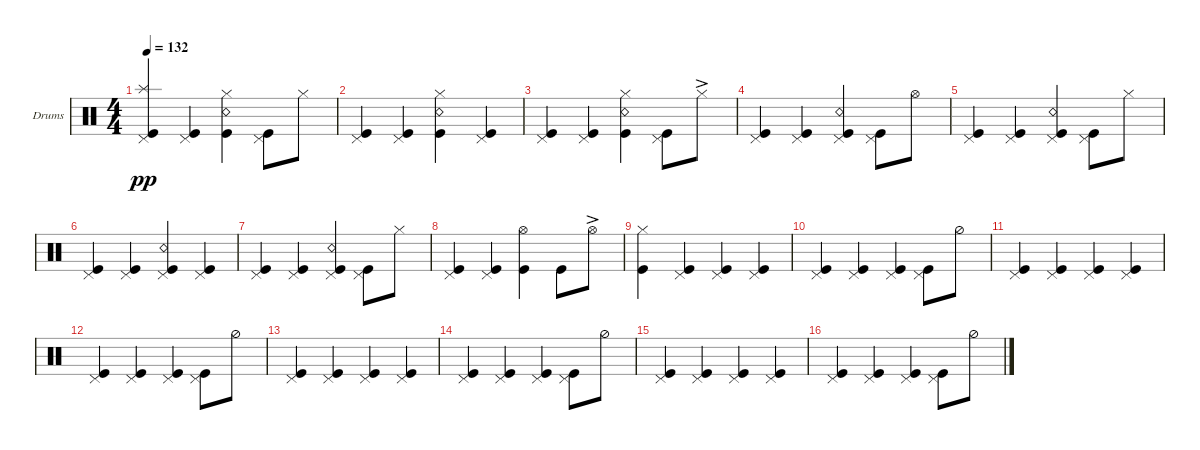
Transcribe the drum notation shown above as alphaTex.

\defaultSystemsLayout 4
\bracketExtendMode groupsimilarinstruments
\firstSystemTrackNameOrientation horizontal
\otherSystemsTrackNameOrientation horizontal
\track ("Steve Judd" "Drums") {instrument percussion}
\staff {score}
\articulation defaults
\ts (4 4)
\tempo 132
\clef neutral
\scale
0.474178
\ks c
("Kick (hit)" "Splash (hit)" "Pedal Hi-Hat (hit)").4{dy pp} ("Kick (hit)" "Pedal Hi-Hat (hit)").4 ("Kick (hit)" "Snare (rim shot)" "Hi-Hat (closed)").4 ("Kick (hit)" "Pedal Hi-Hat (hit)").8 "Hi-Hat (closed)".8 |
\scale
0.262911 ("Kick (hit)" "Pedal Hi-Hat (hit)").4 ("Kick (hit)" "Pedal Hi-Hat (hit)").4 ("Kick (hit)" "Snare (rim shot)" "Hi-Hat (closed)").4 ("Kick (hit)" "Pedal Hi-Hat (hit)").4 |
\scale
0.262911 ("Kick (hit)" "Pedal Hi-Hat (hit)").4 ("Kick (hit)" "Pedal Hi-Hat (hit)").4 ("Kick (hit)" "Snare (rim shot)" "Hi-Hat (closed)").4 ("Kick (hit)" "Pedal Hi-Hat (hit)").8 "Hi-Hat (closed)"{ac}.8 |
\scale
0.333333 ("Kick (hit)" "Pedal Hi-Hat (hit)").4 ("Kick (hit)" "Pedal Hi-Hat (hit)").4 ("Kick (hit)" "Snare (rim shot)" "Pedal Hi-Hat (hit)").4 ("Pedal Hi-Hat (hit)" "Kick (hit)").8 "Hi-Hat (open)".8 |
\scale
0.333333 ("Kick (hit)" "Pedal Hi-Hat (hit)").4 ("Kick (hit)" "Pedal Hi-Hat (hit)").4 ("Kick (hit)" "Snare (rim shot)" "Pedal Hi-Hat (hit)").4 ("Kick (hit)" "Pedal Hi-Hat (hit)").8 "Hi-Hat (closed)".8 |
\scale
0.333333 ("Kick (hit)" "Pedal Hi-Hat (hit)").4 ("Kick (hit)" "Pedal Hi-Hat (hit)").4 ("Kick (hit)" "Snare (rim shot)" "Pedal Hi-Hat (hit)").4 ("Kick (hit)" "Pedal Hi-Hat (hit)").4 |
\scale
0.333333 ("Kick (hit)" "Pedal Hi-Hat (hit)").4 ("Kick (hit)" "Pedal Hi-Hat (hit)").4 ("Kick (hit)" "Snare (rim shot)" "Pedal Hi-Hat (hit)").4 ("Kick (hit)" "Pedal Hi-Hat (hit)").8 "Hi-Hat (closed)".8 |
\scale
0.333333 ("Kick (hit)" "Pedal Hi-Hat (hit)").4 ("Kick (hit)" "Pedal Hi-Hat (hit)").4 ("Kick (hit)" "Hi-Hat (open)").4 "Kick (hit)".8 "Hi-Hat (open)"{ac}.8 |
\scale
0.333333 ("Kick (hit)" "Hi-Hat (closed)").4 ("Kick (hit)" "Pedal Hi-Hat (hit)").4 ("Kick (hit)" "Pedal Hi-Hat (hit)").4 ("Kick (hit)" "Pedal Hi-Hat (hit)").4 |
\scale
0.333333 ("Kick (hit)" "Pedal Hi-Hat (hit)").4 ("Kick (hit)" "Pedal Hi-Hat (hit)").4 ("Kick (hit)" "Pedal Hi-Hat (hit)").4 ("Kick (hit)" "Pedal Hi-Hat (hit)").8 "Hi-Hat (half)".8 |
\scale
0.333333 ("Kick (hit)" "Pedal Hi-Hat (hit)").4 ("Kick (hit)" "Pedal Hi-Hat (hit)").4 ("Kick (hit)" "Pedal Hi-Hat (hit)").4 ("Kick (hit)" "Pedal Hi-Hat (hit)").4 |
\scale
0.333333 ("Kick (hit)" "Pedal Hi-Hat (hit)").4 ("Kick (hit)" "Pedal Hi-Hat (hit)").4 ("Kick (hit)" "Pedal Hi-Hat (hit)").4 ("Kick (hit)" "Pedal Hi-Hat (hit)").8 "Hi-Hat (half)".8 |
\scale
0.333333 ("Kick (hit)" "Pedal Hi-Hat (hit)").4 ("Kick (hit)" "Pedal Hi-Hat (hit)").4 ("Kick (hit)" "Pedal Hi-Hat (hit)").4 ("Kick (hit)" "Pedal Hi-Hat (hit)").4 |
\scale
0.333333 ("Kick (hit)" "Pedal Hi-Hat (hit)").4 ("Kick (hit)" "Pedal Hi-Hat (hit)").4 ("Kick (hit)" "Pedal Hi-Hat (hit)").4 ("Kick (hit)" "Pedal Hi-Hat (hit)").8 "Hi-Hat (half)".8 |
\scale
0.333333 ("Kick (hit)" "Pedal Hi-Hat (hit)").4 ("Kick (hit)" "Pedal Hi-Hat (hit)").4 ("Kick (hit)" "Pedal Hi-Hat (hit)").4 ("Kick (hit)" "Pedal Hi-Hat (hit)").4 |
\scale
0.333333 ("Kick (hit)" "Pedal Hi-Hat (hit)").4 ("Kick (hit)" "Pedal Hi-Hat (hit)").4 ("Kick (hit)" "Pedal Hi-Hat (hit)").4 ("Kick (hit)" "Pedal Hi-Hat (hit)").8 "Hi-Hat (half)".8
